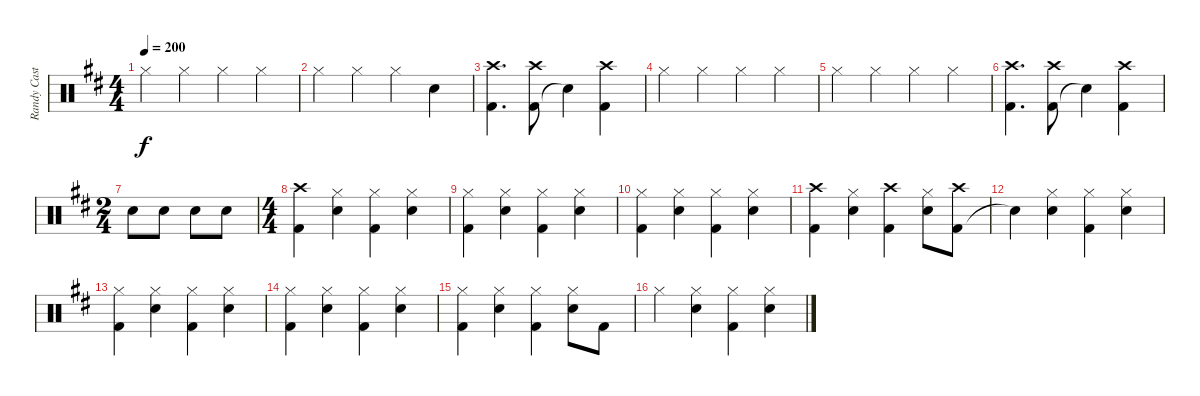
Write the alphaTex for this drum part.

\track ("Randy Castillo" "Randy Cast") {instrument percussion}
\staff {score}
\articulation defaults
\ts (4 4)
\tempo 200
\clef neutral
\ks d "Hi-Hat (closed)".4{dy f} "Hi-Hat (closed)".4 "Hi-Hat (closed)".4 "Hi-Hat (closed)".4
|
"Hi-Hat (closed)".4 "Hi-Hat (closed)".4 "Hi-Hat (closed)".4 "Snare (hit)".4 |
("Kick (hit) 2" "Crash high (hit)").4{d} ("Kick (hit) 2" "Crash high (hit)").8 "Snare (hit)"{t}.4 ("Kick (hit) 2" "Crash high (hit)").4 |
"Hi-Hat (closed)".4 "Hi-Hat (closed)".4 "Hi-Hat (closed)".4 "Hi-Hat (closed)".4 |
"Hi-Hat (closed)".4 "Hi-Hat (closed)".4 "Hi-Hat (closed)".4 "Hi-Hat (closed)".4 |
("Kick (hit) 2" "Crash high (hit)").4{d} ("Kick (hit) 2" "Crash high (hit)").8 "Snare (hit)"{t}.4 ("Kick (hit) 2" "Crash high (hit)").4 |
\ts (2 4)
"Snare (hit) 2".8 "Snare (hit) 2".8 "Snare (hit) 2".8 "Snare (hit) 2".8 |
\ts (4 4)
("Kick (hit) 2" "Crash high (hit)").4 ("Hi-Hat (closed)" "Snare (hit) 2").4 ("Hi-Hat (closed)" "Kick (hit) 2").4 ("Hi-Hat (closed)" "Snare (hit) 2").4 |
("Hi-Hat (closed)" "Kick (hit) 2").4 ("Hi-Hat (closed)" "Snare (hit) 2").4 ("Hi-Hat (closed)" "Kick (hit) 2").4 ("Hi-Hat (closed)" "Snare (hit) 2").4 |
("Hi-Hat (closed)" "Kick (hit) 2").4 ("Hi-Hat (closed)" "Snare (hit) 2").4 ("Hi-Hat (closed)" "Kick (hit) 2").4 ("Hi-Hat (closed)" "Snare (hit) 2").4 |
("Kick (hit) 2" "Crash high (hit)").4 ("Hi-Hat (closed)" "Snare (hit) 2").4 ("Kick (hit) 2" "Crash high (hit)").4 ("Hi-Hat (closed)" "Snare (hit) 2").8 ("Kick (hit) 2" "Crash high (hit)").8 |
"Snare (hit)"{t}.4 ("Hi-Hat (closed)" "Snare (hit) 2").4 ("Hi-Hat (closed)" "Kick (hit) 2").4 ("Hi-Hat (closed)" "Snare (hit) 2").4 |
("Hi-Hat (closed)" "Kick (hit) 2").4 ("Hi-Hat (closed)" "Snare (hit) 2").4 ("Hi-Hat (closed)" "Kick (hit) 2").4 ("Hi-Hat (closed)" "Snare (hit) 2").4 |
("Hi-Hat (closed)" "Kick (hit) 2").4 ("Hi-Hat (closed)" "Snare (hit) 2").4 ("Hi-Hat (closed)" "Kick (hit) 2").4 ("Hi-Hat (closed)" "Snare (hit) 2").4 |
("Hi-Hat (closed)" "Kick (hit) 2").4 ("Hi-Hat (closed)" "Snare (hit) 2").4 ("Hi-Hat (closed)" "Kick (hit) 2").4 ("Hi-Hat (closed)" "Snare (hit) 2").8 "Kick (hit) 2".8 |
"Hi-Hat (closed)".4 ("Hi-Hat (closed)" "Snare (hit) 2").4 ("Hi-Hat (closed)" "Kick (hit) 2").4 ("Hi-Hat (closed)" "Snare (hit) 2").4
